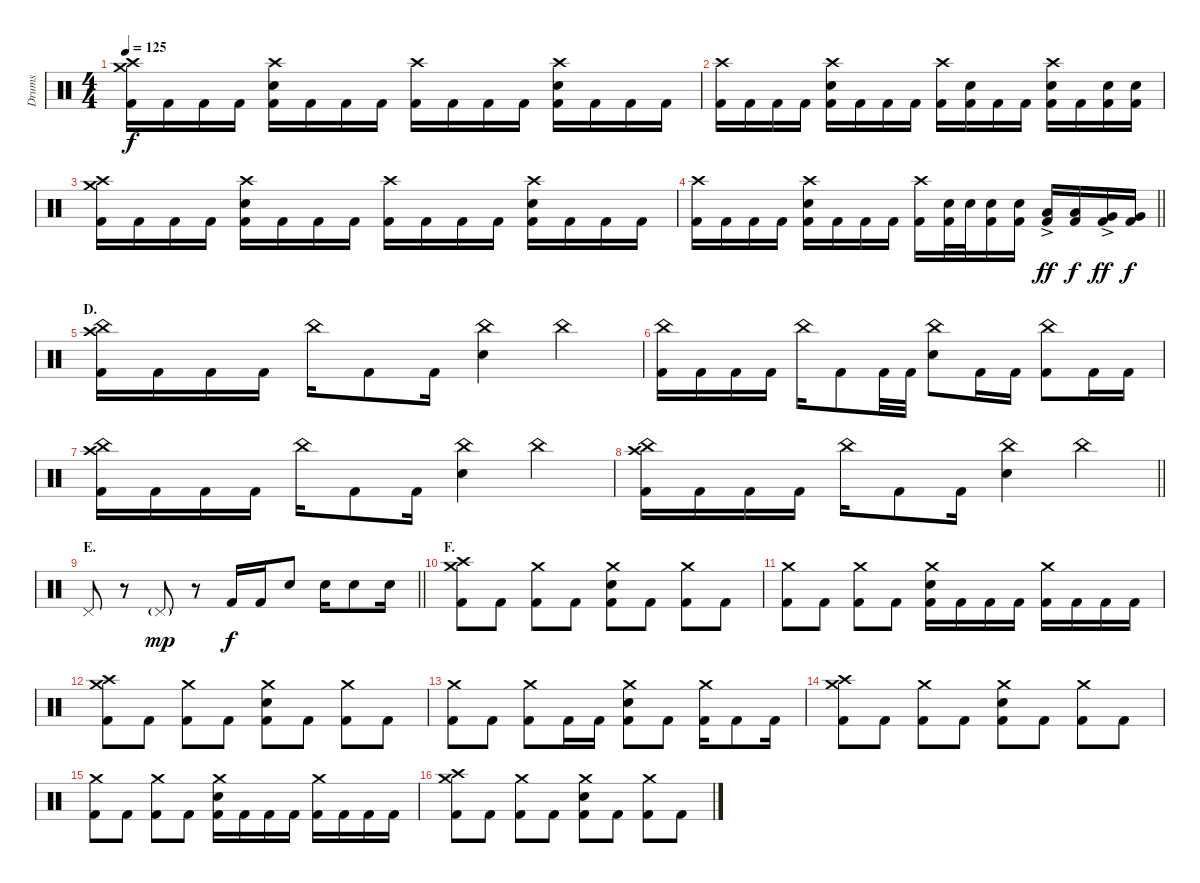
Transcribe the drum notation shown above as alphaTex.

\track ("Drums" "Drums") {instrument percussion}
\staff {score}
\articulation defaults
\ts (4 4)
\tempo 125
\clef neutral
\ks c
("Crash medium (hit)" "Crash high (hit)" "Kick (hit) 2").16{dy f} "Kick (hit) 2".16 "Kick (hit) 2".16 "Kick (hit) 2".16 ("Crash high (hit)" "Electric Snare (hit)" "Kick (hit) 2").16 "Kick (hit) 2".16 "Kick (hit) 2".16 "Kick (hit) 2".16 ("Crash high (hit)" "Kick (hit) 2").16 "Kick (hit) 2".16 "Kick (hit) 2".16 "Kick (hit) 2".16 ("Crash high (hit)" "Electric Snare (hit)" "Kick (hit) 2").16 "Kick (hit) 2".16 "Kick (hit) 2".16 "Kick (hit) 2".16 |
("Crash high (hit)" "Kick (hit) 2").16 "Kick (hit) 2".16 "Kick (hit) 2".16 "Kick (hit) 2".16 ("Crash high (hit)" "Electric Snare (hit)" "Kick (hit) 2").16 "Kick (hit) 2".16 "Kick (hit) 2".16 "Kick (hit) 2".16 ("Crash high (hit)" "Kick (hit) 2").16 ("Electric Snare (hit)" "Kick (hit) 2").16 "Kick (hit) 2".16 "Kick (hit) 2".16 ("Crash high (hit)" "Electric Snare (hit)" "Kick (hit) 2").16 "Kick (hit) 2".16 ("Electric Snare (hit)" "Kick (hit) 2").16 ("Electric Snare (hit)" "Kick (hit) 2").16 |
("Crash medium (hit)" "Crash high (hit)" "Kick (hit) 2").16 "Kick (hit) 2".16 "Kick (hit) 2".16 "Kick (hit) 2".16 ("Crash high (hit)" "Electric Snare (hit)" "Kick (hit) 2").16 "Kick (hit) 2".16 "Kick (hit) 2".16 "Kick (hit) 2".16 ("Crash high (hit)" "Kick (hit) 2").16 "Kick (hit) 2".16 "Kick (hit) 2".16 "Kick (hit) 2".16 ("Crash high (hit)" "Electric Snare (hit)" "Kick (hit) 2").16 "Kick (hit) 2".16 "Kick (hit) 2".16 "Kick (hit) 2".16 |
\barLineRight lightlight
("Crash high (hit)" "Kick (hit) 2").16 "Kick (hit) 2".16 "Kick (hit) 2".16 "Kick (hit) 2".16 ("Crash high (hit)" "Electric Snare (hit)" "Kick (hit) 2").16 "Kick (hit) 2".16 "Kick (hit) 2".16 "Kick (hit) 2".16 ("Crash high (hit)" "Kick (hit) 2").16 ("Electric Snare (hit)" "Kick (hit) 2").32 "Electric Snare (hit)".32 ("Electric Snare (hit)" "Kick (hit) 2").16 ("Electric Snare (hit)" "Kick (hit) 2").16 ("Low Tom (hit)"{ac} "Kick (hit) 2").16{dy ff} ("Low Tom (hit)" "Kick (hit) 2").16{dy f} ("Very Low Tom (hit)"{ac} "Kick (hit) 2").16{dy ff} ("Very Low Tom (hit)" "Kick (hit) 2").16{dy f} |
\section ("" "D.")
("China (hit)" "Crash high (hit)" "Kick (hit) 2").16 "Kick (hit) 2".16 "Kick (hit) 2".16 "Kick (hit) 2".16 "China (hit)".16 "Kick (hit) 2".8 "Kick (hit) 2".16 ("China (hit)" "Electric Snare (hit)").4 "China (hit)".4 |
("China (hit)" "Kick (hit) 2").16 "Kick (hit) 2".16 "Kick (hit) 2".16 "Kick (hit) 2".16 "China (hit)".16 "Kick (hit) 2".8 "Kick (hit) 2".32 "Kick (hit) 2".32 ("China (hit)" "Electric Snare (hit)").8 "Kick (hit) 2".16 "Kick (hit) 2".16 ("China (hit)" "Kick (hit) 2").8 "Kick (hit) 2".16 "Kick (hit) 2".16 |
("China (hit)" "Crash high (hit)" "Kick (hit) 2").16 "Kick (hit) 2".16 "Kick (hit) 2".16 "Kick (hit) 2".16 "China (hit)".16 "Kick (hit) 2".8 "Kick (hit) 2".16 ("China (hit)" "Electric Snare (hit)").4 "China (hit)".4 |
\barLineRight lightlight
("China (hit)" "Crash high (hit)" "Kick (hit) 2").16 "Kick (hit) 2".16 "Kick (hit) 2".16 "Kick (hit) 2".16 "China (hit)".16 "Kick (hit) 2".8 "Kick (hit) 2".16 ("China (hit)" "Electric Snare (hit)").4 "China (hit)".4 |
\section ("" "E.")
\barLineRight lightlight "Pedal Hi-Hat (hit)".8
r.8 "Pedal Hi-Hat (hit)"{g}.8{dy mp} r.8 "Kick (hit) 2".16{dy f} "Kick (hit) 2".16 "Electric Snare (hit)".8 "Electric Snare (hit)".16 "Electric Snare (hit)".8 "Electric Snare (hit)".16 |
\section ("" "F.")
("Crash medium (hit)" "Crash high (hit)" "Kick (hit) 2").8 "Kick (hit) 2".8 ("Crash medium (hit)" "Kick (hit) 2").8 "Kick (hit) 2".8 ("Crash medium (hit)" "Electric Snare (hit)" "Kick (hit) 2").8 "Kick (hit) 2".8 ("Crash medium (hit)" "Kick (hit) 2").8 "Kick (hit) 2".8 |
("Crash medium (hit)" "Kick (hit) 2").8 "Kick (hit) 2".8 ("Crash medium (hit)" "Kick (hit) 2").8 "Kick (hit) 2".8 ("Crash medium (hit)" "Electric Snare (hit)" "Kick (hit) 2").16 "Kick (hit) 2".16 "Kick (hit) 2".16 "Kick (hit) 2".16 ("Crash medium (hit)" "Kick (hit) 2").16 "Kick (hit) 2".16 "Kick (hit) 2".16 "Kick (hit) 2".16 |
("Crash medium (hit)" "Crash high (hit)" "Kick (hit) 2").8 "Kick (hit) 2".8 ("Crash medium (hit)" "Kick (hit) 2").8 "Kick (hit) 2".8 ("Crash medium (hit)" "Electric Snare (hit)" "Kick (hit) 2").8 "Kick (hit) 2".8 ("Crash medium (hit)" "Kick (hit) 2").8 "Kick (hit) 2".8 |
("Crash medium (hit)" "Kick (hit) 2").8 "Kick (hit) 2".8 ("Crash medium (hit)" "Kick (hit) 2").8 "Kick (hit) 2".16 "Kick (hit) 2".16 ("Crash medium (hit)" "Electric Snare (hit)" "Kick (hit) 2").8 "Kick (hit) 2".8 ("Crash medium (hit)" "Kick (hit) 2").16 "Kick (hit) 2".8 "Kick (hit) 2".16 |
("Crash medium (hit)" "Crash high (hit)" "Kick (hit) 2").8 "Kick (hit) 2".8 ("Crash medium (hit)" "Kick (hit) 2").8 "Kick (hit) 2".8 ("Crash medium (hit)" "Electric Snare (hit)" "Kick (hit) 2").8 "Kick (hit) 2".8 ("Crash medium (hit)" "Kick (hit) 2").8 "Kick (hit) 2".8 |
("Crash medium (hit)" "Kick (hit) 2").8 "Kick (hit) 2".8 ("Crash medium (hit)" "Kick (hit) 2").8 "Kick (hit) 2".8 ("Crash medium (hit)" "Electric Snare (hit)" "Kick (hit) 2").16 "Kick (hit) 2".16 "Kick (hit) 2".16 "Kick (hit) 2".16 ("Crash medium (hit)" "Kick (hit) 2").16 "Kick (hit) 2".16 "Kick (hit) 2".16 "Kick (hit) 2".16 |
("Crash medium (hit)" "Crash high (hit)" "Kick (hit) 2").8 "Kick (hit) 2".8 ("Crash medium (hit)" "Kick (hit) 2").8 "Kick (hit) 2".8 ("Crash medium (hit)" "Electric Snare (hit)" "Kick (hit) 2").8 "Kick (hit) 2".8 ("Crash medium (hit)" "Kick (hit) 2").8 "Kick (hit) 2".8
